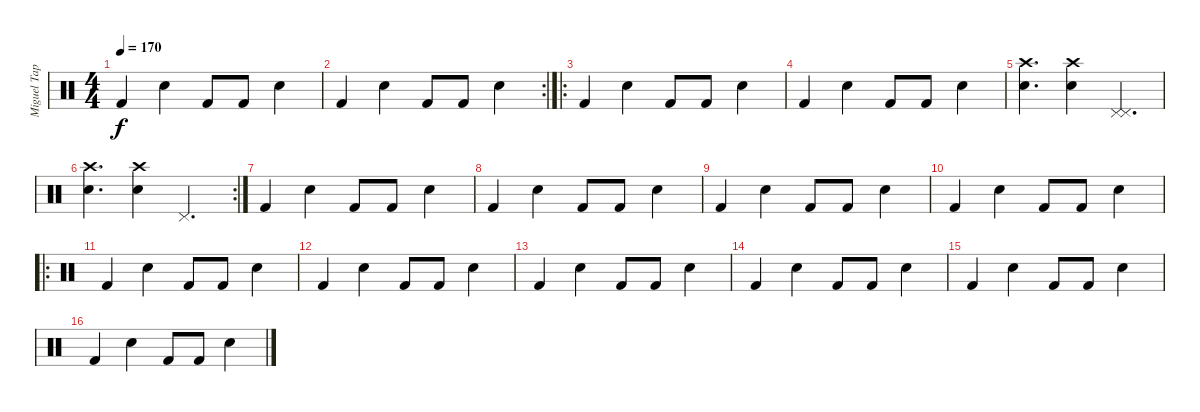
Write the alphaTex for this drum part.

\track ("Miguel Tapia" "Miguel Tap") {instrument percussion}
\staff {score}
\articulation defaults
\ts (4 4)
\tempo 170
\clef neutral
\ks c "Kick (hit) 2".4{dy f} "Snare (hit) 2".4 "Kick (hit) 2".8 "Kick (hit) 2".8 "Snare (hit) 2".4
|
\rc 2 "Kick (hit) 2".4 "Snare (hit) 2".4 "Kick (hit) 2".8 "Kick (hit) 2".8 "Snare (hit) 2".4
|
\ro "Kick (hit) 2".4 "Snare (hit) 2".4 "Kick (hit) 2".8 "Kick (hit) 2".8 "Snare (hit) 2".4
|
"Kick (hit) 2".4 "Snare (hit) 2".4 "Kick (hit) 2".8 "Kick (hit) 2".8 "Snare (hit) 2".4 |
("Snare (hit) 2" "Crash high (hit)").4{d} ("Snare (hit) 2" "Crash high (hit)").4 ("Pedal Hi-Hat (hit)" "Pedal Hi-Hat (hit)").4{d} |
\rc 2
("Snare (hit) 2" "Crash high (hit)").4{d} ("Snare (hit) 2" "Crash high (hit)").4 "Pedal Hi-Hat (hit)".4{d} |
"Kick (hit) 2".4 "Snare (hit) 2".4 "Kick (hit) 2".8 "Kick (hit) 2".8 "Snare (hit) 2".4 |
"Kick (hit) 2".4 "Snare (hit) 2".4 "Kick (hit) 2".8 "Kick (hit) 2".8 "Snare (hit) 2".4 |
"Kick (hit) 2".4 "Snare (hit) 2".4 "Kick (hit) 2".8 "Kick (hit) 2".8 "Snare (hit) 2".4 |
"Kick (hit) 2".4 "Snare (hit) 2".4 "Kick (hit) 2".8 "Kick (hit) 2".8 "Snare (hit) 2".4 |
\ro "Kick (hit) 2".4 "Snare (hit) 2".4 "Kick (hit) 2".8 "Kick (hit) 2".8 "Snare (hit) 2".4
|
"Kick (hit) 2".4 "Snare (hit) 2".4 "Kick (hit) 2".8 "Kick (hit) 2".8 "Snare (hit) 2".4 |
"Kick (hit) 2".4 "Snare (hit) 2".4 "Kick (hit) 2".8 "Kick (hit) 2".8 "Snare (hit) 2".4 |
"Kick (hit) 2".4 "Snare (hit) 2".4 "Kick (hit) 2".8 "Kick (hit) 2".8 "Snare (hit) 2".4 |
"Kick (hit) 2".4 "Snare (hit) 2".4 "Kick (hit) 2".8 "Kick (hit) 2".8 "Snare (hit) 2".4 |
"Kick (hit) 2".4 "Snare (hit) 2".4 "Kick (hit) 2".8 "Kick (hit) 2".8 "Snare (hit) 2".4
